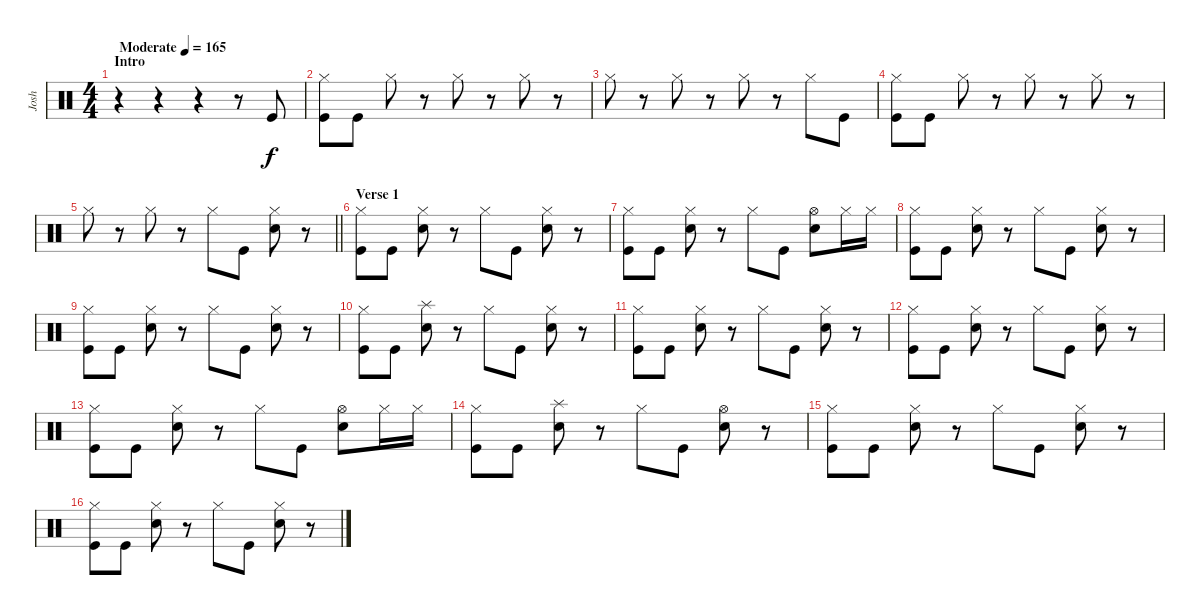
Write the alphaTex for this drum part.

\track ("Josh" "Josh") {instrument percussion}
\staff {score}
\articulation defaults
\ts (4 4)
\section ("" "Intro")
\tempo (165 "Moderate")
\clef neutral
\ks c
r.4{dy f} r.4 r.4 r.8 "Kick (hit)".8 |
("Hi-Hat (closed)" "Kick (hit)").8 "Kick (hit)".8 "Hi-Hat (closed)".8 r.8 "Hi-Hat (closed)".8 r.8 "Hi-Hat (closed)".8 r.8 |
"Hi-Hat (closed)".8 r.8 "Hi-Hat (closed)".8 r.8 "Hi-Hat (closed)".8 r.8 "Hi-Hat (closed)".8 "Kick (hit)".8 |
("Hi-Hat (closed)" "Kick (hit)").8 "Kick (hit)".8 "Hi-Hat (closed)".8 r.8 "Hi-Hat (closed)".8 r.8 "Hi-Hat (closed)".8 r.8 |
\barLineRight lightlight "Hi-Hat (closed)".8
r.8 "Hi-Hat (closed)".8 r.8 "Hi-Hat (closed)".8 "Kick (hit)".8 ("Hi-Hat (closed)" "Snare (hit) 2").8 r.8 |
\section ("" "Verse 1")
("Hi-Hat (closed)" "Kick (hit)").8 "Kick (hit)".8 ("Hi-Hat (closed)" "Snare (hit) 2").8 r.8 "Hi-Hat (closed)".8 "Kick (hit)".8 ("Hi-Hat (closed)" "Snare (hit) 2").8 r.8 |
("Hi-Hat (closed)" "Kick (hit)").8 "Kick (hit)".8 ("Hi-Hat (closed)" "Snare (hit) 2").8 r.8 "Hi-Hat (closed)".8 "Kick (hit)".8 ("Hi-Hat (open)" "Snare (hit) 2").8 "Hi-Hat (closed)".16 "Hi-Hat (closed)".16 |
("Hi-Hat (closed)" "Kick (hit)").8 "Kick (hit)".8 ("Hi-Hat (closed)" "Snare (hit) 2").8 r.8 "Hi-Hat (closed)".8 "Kick (hit)".8 ("Hi-Hat (closed)" "Snare (hit) 2").8 r.8 |
("Hi-Hat (closed)" "Kick (hit)").8 "Kick (hit)".8 ("Hi-Hat (closed)" "Snare (hit) 2").8 r.8 "Hi-Hat (closed)".8 "Kick (hit)".8 ("Hi-Hat (closed)" "Snare (hit) 2").8 r.8 |
("Hi-Hat (closed)" "Kick (hit)").8 "Kick (hit)".8 ("Splash (hit)" "Snare (hit) 2").8 r.8 "Hi-Hat (closed)".8 "Kick (hit)".8 ("Hi-Hat (closed)" "Snare (hit) 2").8 r.8 |
("Hi-Hat (closed)" "Kick (hit)").8 "Kick (hit)".8 ("Hi-Hat (closed)" "Snare (hit) 2").8 r.8 "Hi-Hat (closed)".8 "Kick (hit)".8 ("Hi-Hat (closed)" "Snare (hit) 2").8 r.8 |
("Hi-Hat (closed)" "Kick (hit)").8 "Kick (hit)".8 ("Hi-Hat (closed)" "Snare (hit) 2").8 r.8 "Hi-Hat (closed)".8 "Kick (hit)".8 ("Hi-Hat (closed)" "Snare (hit) 2").8 r.8 |
("Hi-Hat (closed)" "Kick (hit)").8 "Kick (hit)".8 ("Hi-Hat (closed)" "Snare (hit) 2").8 r.8 "Hi-Hat (closed)".8 "Kick (hit)".8 ("Hi-Hat (open)" "Snare (hit) 2").8 "Hi-Hat (closed)".16 "Hi-Hat (closed)".16 |
("Hi-Hat (closed)" "Kick (hit)").8 "Kick (hit)".8 ("Splash (hit)" "Snare (hit) 2").8 r.8 "Hi-Hat (closed)".8 "Kick (hit)".8 ("Hi-Hat (open)" "Snare (hit) 2").8 r.8 |
("Hi-Hat (closed)" "Kick (hit)").8 "Kick (hit)".8 ("Hi-Hat (closed)" "Snare (hit) 2").8 r.8 "Hi-Hat (closed)".8 "Kick (hit)".8 ("Hi-Hat (closed)" "Snare (hit) 2").8 r.8 |
("Hi-Hat (closed)" "Kick (hit)").8 "Kick (hit)".8 ("Hi-Hat (closed)" "Snare (hit) 2").8 r.8 "Hi-Hat (closed)".8 "Kick (hit)".8 ("Hi-Hat (closed)" "Snare (hit) 2").8 r.8
